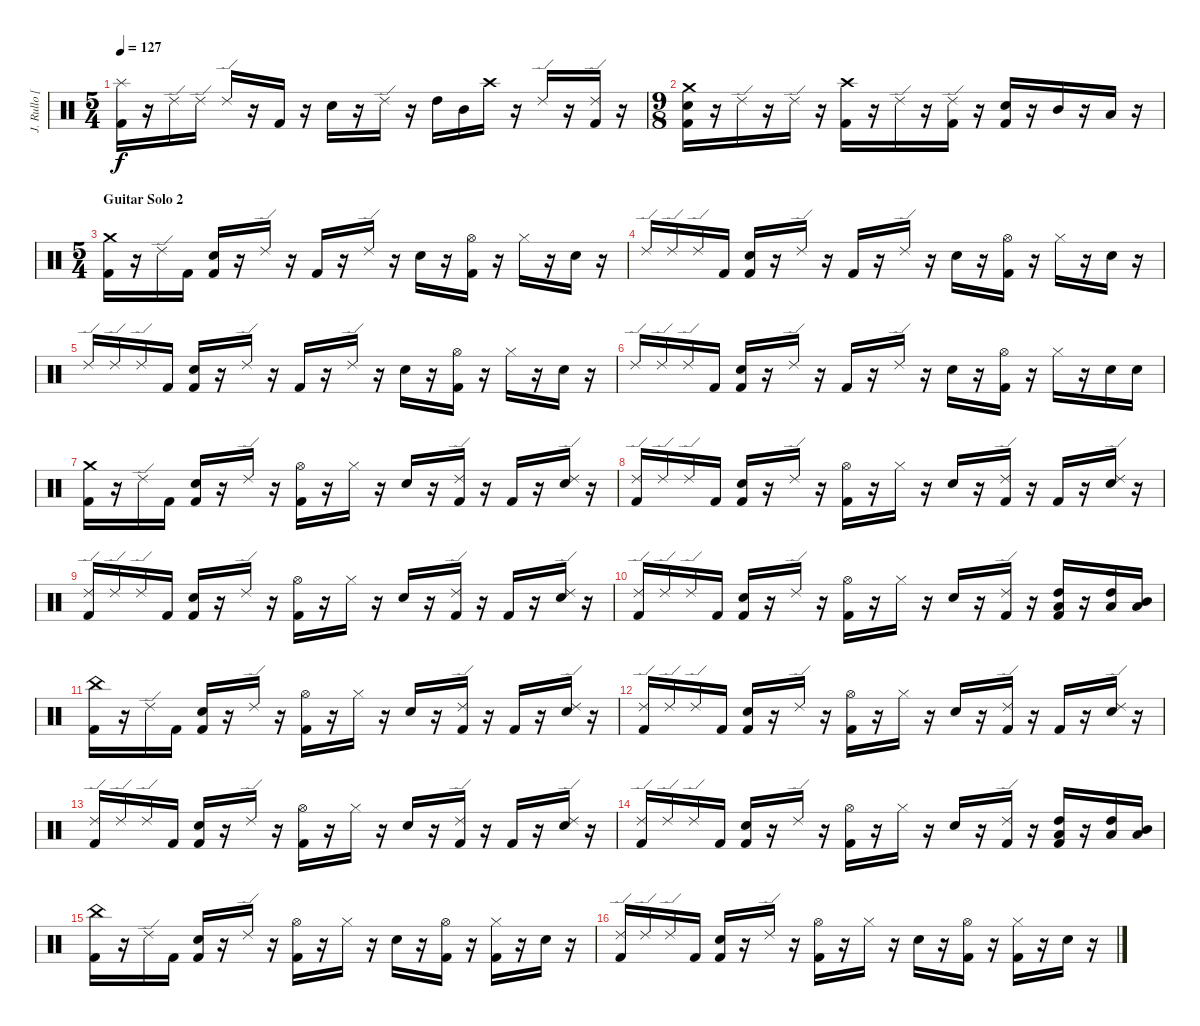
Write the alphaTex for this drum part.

\track ("J. Rullo [Drums]" "J. Rullo [") {instrument percussion}
\staff {score}
\articulation defaults
\ts (5 4)
\tempo 127
\clef neutral
\ks c
("Splash (hit)" "Kick (hit) 2").16{dy f} r.16 "Ride (edge) 2".16 "Ride (edge) 2".16 "Ride (edge) 2".16 r.16 "Kick (hit) 2".16 r.16 "Electric Snare (hit)".16 r.16 "Ride (edge) 2".16 r.16 "High Tom (hit)".16 "Mid Tom (hit)".16 "Crash high (hit)".16 r.16 "Ride (edge) 2".16 r.16 ("Ride (edge) 2" "Kick (hit) 2").16 r.16 |
\ts (9 8)
("Crash medium (hit)" "Electric Snare (hit)" "Kick (hit) 2").16 r.16 "Ride (edge) 2".16 r.16 "Ride (edge) 2".16 r.16 ("Crash high (hit)" "Kick (hit) 2").16 r.16 "Ride (edge) 2".16 r.16 ("Ride (edge) 2" "Kick (hit) 2").16 r.16 ("Electric Snare (hit)" "Kick (hit) 2").16 r.16 "Mid Tom (hit)".16 r.16 "Low Tom (hit)".16 r.16 |
\ts (5 4)
\section ("" "Guitar Solo 2")
("Crash medium (hit)" "Kick (hit) 2").16 r.16 "Ride (edge) 2".16 "Kick (hit) 2".16 ("Electric Snare (hit)" "Kick (hit) 2").16 r.16 "Ride (edge) 2".16 r.16 "Kick (hit) 2".16 r.16 "Ride (edge) 2".16 r.16 "Electric Snare (hit)".16 r.16 ("Hi-Hat (open)" "Kick (hit) 2").16 r.16 "Hi-Hat (closed)".16 r.16 "Electric Snare (hit)".16 r.16 |
"Ride (edge) 2".16 "Ride (edge) 2".16 "Ride (edge) 2".16 "Kick (hit) 2".16 ("Electric Snare (hit)" "Kick (hit) 2").16 r.16 "Ride (edge) 2".16 r.16 "Kick (hit) 2".16 r.16 "Ride (edge) 2".16 r.16 "Electric Snare (hit)".16 r.16 ("Hi-Hat (open)" "Kick (hit) 2").16 r.16 "Hi-Hat (closed)".16 r.16 "Electric Snare (hit)".16 r.16 |
"Ride (edge) 2".16 "Ride (edge) 2".16 "Ride (edge) 2".16 "Kick (hit) 2".16 ("Electric Snare (hit)" "Kick (hit) 2").16 r.16 "Ride (edge) 2".16 r.16 "Kick (hit) 2".16 r.16 "Ride (edge) 2".16 r.16 "Electric Snare (hit)".16 r.16 ("Hi-Hat (open)" "Kick (hit) 2").16 r.16 "Hi-Hat (closed)".16 r.16 "Electric Snare (hit)".16 r.16 |
"Ride (edge) 2".16 "Ride (edge) 2".16 "Ride (edge) 2".16 "Kick (hit) 2".16 ("Electric Snare (hit)" "Kick (hit) 2").16 r.16 "Ride (edge) 2".16 r.16 "Kick (hit) 2".16 r.16 "Ride (edge) 2".16 r.16 "Electric Snare (hit)".16 r.16 ("Hi-Hat (open)" "Kick (hit) 2").16 r.16 "Hi-Hat (closed)".16 r.16 "Electric Snare (hit)".16 "Electric Snare (hit)".16 |
("Crash medium (hit)" "Kick (hit) 2").16 r.16 "Ride (edge) 2".16 "Kick (hit) 2".16 ("Electric Snare (hit)" "Kick (hit) 2").16 r.16 "Ride (edge) 2".16 r.16 ("Hi-Hat (open)" "Kick (hit) 2").16 r.16 "Hi-Hat (closed)".16 r.16 "Electric Snare (hit)".16 r.16 ("Ride (edge) 2" "Kick (hit) 2").16 r.16 "Kick (hit) 2".16 r.16 ("Ride (edge) 2" "Electric Snare (hit)").16 r.16 |
("Ride (edge) 2" "Kick (hit) 2").16 "Ride (edge) 2".16 "Ride (edge) 2".16 "Kick (hit) 2".16 ("Electric Snare (hit)" "Kick (hit) 2").16 r.16 "Ride (edge) 2".16 r.16 ("Hi-Hat (open)" "Kick (hit) 2").16 r.16 "Hi-Hat (closed)".16 r.16 "Electric Snare (hit)".16 r.16 ("Ride (edge) 2" "Kick (hit) 2").16 r.16 "Kick (hit) 2".16 r.16 ("Ride (edge) 2" "Electric Snare (hit)").16 r.16 |
("Ride (edge) 2" "Kick (hit) 2").16 "Ride (edge) 2".16 "Ride (edge) 2".16 "Kick (hit) 2".16 ("Electric Snare (hit)" "Kick (hit) 2").16 r.16 "Ride (edge) 2".16 r.16 ("Hi-Hat (open)" "Kick (hit) 2").16 r.16 "Hi-Hat (closed)".16 r.16 "Electric Snare (hit)".16 r.16 ("Ride (edge) 2" "Kick (hit) 2").16 r.16 "Kick (hit) 2".16 r.16 ("Ride (edge) 2" "Electric Snare (hit)").16 r.16 |
("Ride (edge) 2" "Kick (hit) 2").16 "Ride (edge) 2".16 "Ride (edge) 2".16 "Kick (hit) 2".16 ("Electric Snare (hit)" "Kick (hit) 2").16 r.16 "Ride (edge) 2".16 r.16 ("Hi-Hat (open)" "Kick (hit) 2").16 r.16 "Hi-Hat (closed)".16 r.16 "Electric Snare (hit)".16 r.16 ("Ride (edge) 2" "Kick (hit) 2").16 r.16 ("High Tom (hit)" "Low Tom (hit)" "Kick (hit) 2").16 r.16 ("High Tom (hit)" "Low Tom (hit)").16 ("Mid Tom (hit)" "Low Tom (hit)").16 |
("China (hit)" "Kick (hit) 2").16 r.16 "Ride (edge) 2".16 "Kick (hit) 2".16 ("Electric Snare (hit)" "Kick (hit) 2").16 r.16 "Ride (edge) 2".16 r.16 ("Hi-Hat (open)" "Kick (hit) 2").16 r.16 "Hi-Hat (closed)".16 r.16 "Electric Snare (hit)".16 r.16 ("Ride (edge) 2" "Kick (hit) 2").16 r.16 "Kick (hit) 2".16 r.16 ("Ride (edge) 2" "Electric Snare (hit)").16 r.16 |
("Ride (edge) 2" "Kick (hit) 2").16 "Ride (edge) 2".16 "Ride (edge) 2".16 "Kick (hit) 2".16 ("Electric Snare (hit)" "Kick (hit) 2").16 r.16 "Ride (edge) 2".16 r.16 ("Hi-Hat (open)" "Kick (hit) 2").16 r.16 "Hi-Hat (closed)".16 r.16 "Electric Snare (hit)".16 r.16 ("Ride (edge) 2" "Kick (hit) 2").16 r.16 "Kick (hit) 2".16 r.16 ("Ride (edge) 2" "Electric Snare (hit)").16 r.16 |
("Ride (edge) 2" "Kick (hit) 2").16 "Ride (edge) 2".16 "Ride (edge) 2".16 "Kick (hit) 2".16 ("Electric Snare (hit)" "Kick (hit) 2").16 r.16 "Ride (edge) 2".16 r.16 ("Hi-Hat (open)" "Kick (hit) 2").16 r.16 "Hi-Hat (closed)".16 r.16 "Electric Snare (hit)".16 r.16 ("Ride (edge) 2" "Kick (hit) 2").16 r.16 "Kick (hit) 2".16 r.16 ("Ride (edge) 2" "Electric Snare (hit)").16 r.16 |
("Ride (edge) 2" "Kick (hit) 2").16 "Ride (edge) 2".16 "Ride (edge) 2".16 "Kick (hit) 2".16 ("Electric Snare (hit)" "Kick (hit) 2").16 r.16 "Ride (edge) 2".16 r.16 ("Hi-Hat (open)" "Kick (hit) 2").16 r.16 "Hi-Hat (closed)".16 r.16 "Electric Snare (hit)".16 r.16 ("Ride (edge) 2" "Kick (hit) 2").16 r.16 ("High Tom (hit)" "Low Tom (hit)" "Kick (hit) 2").16 r.16 ("High Tom (hit)" "Low Tom (hit)").16 ("Mid Tom (hit)" "Low Tom (hit)").16 |
("China (hit)" "Kick (hit) 2").16 r.16 "Ride (edge) 2".16 "Kick (hit) 2".16 ("Electric Snare (hit)" "Kick (hit) 2").16 r.16 "Ride (edge) 2".16 r.16 ("Hi-Hat (open)" "Kick (hit) 2").16 r.16 "Hi-Hat (closed)".16 r.16 "Electric Snare (hit)".16 r.16 ("Hi-Hat (open)" "Kick (hit) 2").16 r.16 ("Hi-Hat (closed)" "Kick (hit) 2").16 r.16 "Electric Snare (hit)".16 r.16 |
("Ride (edge) 2" "Kick (hit) 2").16 "Ride (edge) 2".16 "Ride (edge) 2".16 "Kick (hit) 2".16 ("Electric Snare (hit)" "Kick (hit) 2").16 r.16 "Ride (edge) 2".16 r.16 ("Hi-Hat (open)" "Kick (hit) 2").16 r.16 "Hi-Hat (closed)".16 r.16 "Electric Snare (hit)".16 r.16 ("Hi-Hat (open)" "Kick (hit) 2").16 r.16 ("Hi-Hat (closed)" "Kick (hit) 2").16 r.16 "Electric Snare (hit)".16 r.16
